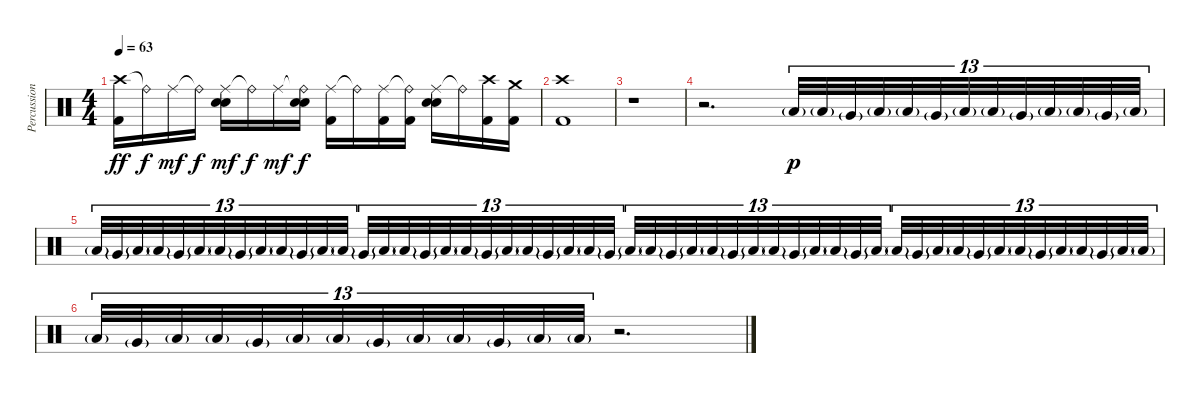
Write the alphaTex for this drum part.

\track ("Percussion" "Percussion") {instrument percussion}
\staff {score}
\articulation defaults
\ts (4 4)
\tempo 63
\clef neutral
\ks c
("Crash high (hit)" "Kick (hit) 2").16{dy ff} "Ride (bell)"{t}.16{dy f} "Ride (middle)".16{dy mf} "Ride (bell)"{t}.16{dy f} ("Ride (middle)" "Snare (hit) 2" "Electric Snare (hit)").16{dy mf} "Ride (bell)"{t}.16{dy f} "Ride (middle)".16{dy mf} ("Ride (bell)"{t} "Snare (hit) 2" "Electric Snare (hit)").16{dy f} ("Ride (middle)" "Kick (hit) 2").16 "Ride (bell)"{t}.16 ("Ride (middle)" "Kick (hit) 2").16 ("Ride (bell)"{t} "Kick (hit) 2").16 ("Ride (middle)" "Snare (hit) 2" "Electric Snare (hit)").16 "Ride (bell)"{t}.16 ("Crash high (hit)" "Kick (hit) 2").16 ("Crash medium (hit)" "Kick (hit) 2").16 |
("Crash high (hit)" "Kick (hit) 2").1 |
r.1 |
r.2{d} "Low Floor Tom (hit)"{g}.32{tu (13 8) dy p volume 8} "Low Floor Tom (hit)"{g}.32{tu (13 8)} "Very Low Tom (hit)"{g}.32{tu (13 8)} "Low Floor Tom (hit)"{g}.32{tu (13 8)} "Low Floor Tom (hit)"{g}.32{tu (13 8)} "Very Low Tom (hit)"{g}.32{tu (13 8)} "Low Floor Tom (hit)"{g}.32{tu (13 8)} "Low Floor Tom (hit)"{g}.32{tu (13 8)} "Very Low Tom (hit)"{g}.32{tu (13 8)} "Low Floor Tom (hit)"{g}.32{tu (13 8)} "Low Floor Tom (hit)"{g}.32{tu (13 8)} "Very Low Tom (hit)"{g}.32{tu (13 8)} "Low Floor Tom (hit)"{g}.32{tu (13 8)} |
"Low Floor Tom (hit)"{g}.32{tu (13 8)} "Very Low Tom (hit)"{g}.32{tu (13 8)} "Low Floor Tom (hit)"{g}.32{tu (13 8)} "Low Floor Tom (hit)"{g}.32{tu (13 8)} "Very Low Tom (hit)"{g}.32{tu (13 8)} "Low Floor Tom (hit)"{g}.32{tu (13 8)} "Low Floor Tom (hit)"{g}.32{tu (13 8)} "Very Low Tom (hit)"{g}.32{tu (13 8)} "Low Floor Tom (hit)"{g}.32{tu (13 8)} "Low Floor Tom (hit)"{g}.32{tu (13 8)} "Very Low Tom (hit)"{g}.32{tu (13 8)} "Low Floor Tom (hit)"{g}.32{tu (13 8)} "Low Floor Tom (hit)"{g}.32{tu (13 8)} "Very Low Tom (hit)"{g}.32{tu (13 8)} "Low Floor Tom (hit)"{g}.32{tu (13 8)} "Low Floor Tom (hit)"{g}.32{tu (13 8)} "Very Low Tom (hit)"{g}.32{tu (13 8)} "Low Floor Tom (hit)"{g}.32{tu (13 8)} "Low Floor Tom (hit)"{g}.32{tu (13 8)} "Very Low Tom (hit)"{g}.32{tu (13 8)} "Low Floor Tom (hit)"{g}.32{tu (13 8)} "Low Floor Tom (hit)"{g}.32{tu (13 8)} "Very Low Tom (hit)"{g}.32{tu (13 8)} "Low Floor Tom (hit)"{g}.32{tu (13 8)} "Low Floor Tom (hit)"{g}.32{tu (13 8)} "Very Low Tom (hit)"{g}.32{tu (13 8)} "Low Floor Tom (hit)"{g}.32{tu (13 8) volume 0} "Low Floor Tom (hit)"{g}.32{tu (13 8)} "Very Low Tom (hit)"{g}.32{tu (13 8)} "Low Floor Tom (hit)"{g}.32{tu (13 8)} "Low Floor Tom (hit)"{g}.32{tu (13 8)} "Very Low Tom (hit)"{g}.32{tu (13 8)} "Low Floor Tom (hit)"{g}.32{tu (13 8)} "Low Floor Tom (hit)"{g}.32{tu (13 8)} "Very Low Tom (hit)"{g}.32{tu (13 8)} "Low Floor Tom (hit)"{g}.32{tu (13 8)} "Low Floor Tom (hit)"{g}.32{tu (13 8)} "Very Low Tom (hit)"{g}.32{tu (13 8)} "Low Floor Tom (hit)"{g}.32{tu (13 8)} "Low Floor Tom (hit)"{g}.32{tu (13 8)} "Very Low Tom (hit)"{g}.32{tu (13 8)} "Low Floor Tom (hit)"{g}.32{tu (13 8)} "Low Floor Tom (hit)"{g}.32{tu (13 8)} "Very Low Tom (hit)"{g}.32{tu (13 8)} "Low Floor Tom (hit)"{g}.32{tu (13 8)} "Low Floor Tom (hit)"{g}.32{tu (13 8)} "Very Low Tom (hit)"{g}.32{tu (13 8)} "Low Floor Tom (hit)"{g}.32{tu (13 8)} "Low Floor Tom (hit)"{g}.32{tu (13 8)} "Very Low Tom (hit)"{g}.32{tu (13 8)} "Low Floor Tom (hit)"{g}.32{tu (13 8)} "Low Floor Tom (hit)"{g}.32{tu (13 8)} |
"Low Floor Tom (hit)"{g}.32{tu (13 8)} "Very Low Tom (hit)"{g}.32{tu (13 8)} "Low Floor Tom (hit)"{g}.32{tu (13 8)} "Low Floor Tom (hit)"{g}.32{tu (13 8)} "Very Low Tom (hit)"{g}.32{tu (13 8)} "Low Floor Tom (hit)"{g}.32{tu (13 8)} "Low Floor Tom (hit)"{g}.32{tu (13 8)} "Very Low Tom (hit)"{g}.32{tu (13 8)} "Low Floor Tom (hit)"{g}.32{tu (13 8)} "Low Floor Tom (hit)"{g}.32{tu (13 8)} "Very Low Tom (hit)"{g}.32{tu (13 8)} "Low Floor Tom (hit)"{g}.32{tu (13 8)} "Low Floor Tom (hit)"{g}.32{tu (13 8)} r.2{d}
